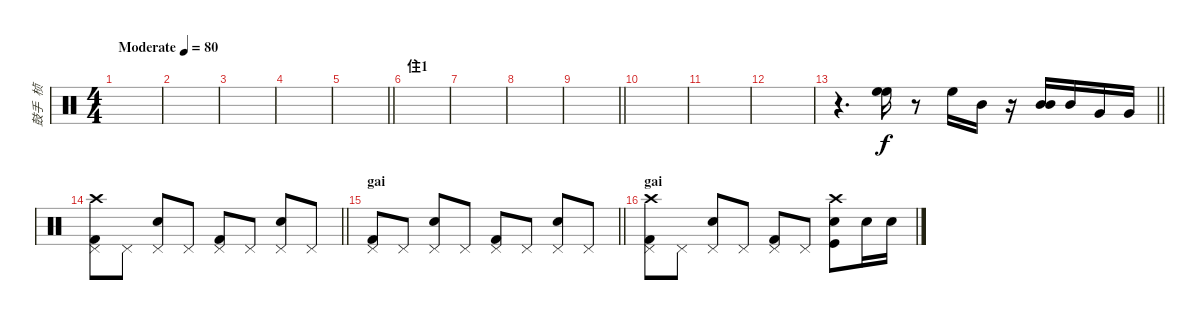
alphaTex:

\track ("鼓手  桢" "鼓手  桢") {instrument percussion}
\staff {score}
\articulation defaults
\ts (4 4)
\tempo (80 "Moderate")
\clef neutral
\ks c
|
|
|
|
\barLineRight lightlight
|
\section ("" "住1")
|
|
|
\barLineRight lightlight
|
|
|
|
\barLineRight lightlight
r.4{d} ("High Floor Tom (hit)" "High Floor Tom (hit)").16 r.8 "High Floor Tom (hit)".16 "Mid Tom (hit)".16 r.16 ("Mid Tom (hit)" "Mid Tom (hit)").16 "Mid Tom (hit)".16 "Very Low Tom (hit)".16 "Very Low Tom (hit)".16 |
\barLineRight lightlight
("Pedal Hi-Hat (hit)" "Kick (hit) 2" "Crash high (hit)").8{dy f} "Pedal Hi-Hat (hit)".8 ("Pedal Hi-Hat (hit)" "Snare (hit) 2").8 "Pedal Hi-Hat (hit)".8 ("Pedal Hi-Hat (hit)" "Kick (hit) 2").8 "Pedal Hi-Hat (hit)".8 ("Pedal Hi-Hat (hit)" "Snare (hit) 2").8 "Pedal Hi-Hat (hit)".8 |
\section ("" "gai ")
\barLineRight lightlight
("Pedal Hi-Hat (hit)" "Kick (hit) 2").8 "Pedal Hi-Hat (hit)".8 ("Pedal Hi-Hat (hit)" "Snare (hit) 2").8 "Pedal Hi-Hat (hit)".8 ("Pedal Hi-Hat (hit)" "Kick (hit) 2").8 "Pedal Hi-Hat (hit)".8 ("Pedal Hi-Hat (hit)" "Snare (hit) 2").8 "Pedal Hi-Hat (hit)".8 |
\section ("" "gai")
("Pedal Hi-Hat (hit)" "Kick (hit) 2" "Crash high (hit)").8 "Pedal Hi-Hat (hit)".8 ("Pedal Hi-Hat (hit)" "Snare (hit) 2").8 "Pedal Hi-Hat (hit)".8 ("Pedal Hi-Hat (hit)" "Kick (hit) 2").8 "Pedal Hi-Hat (hit)".8 ("Crash high (hit)" "Snare (hit) 2" "Kick (hit)").8 "Snare (hit) 2".16 "Snare (hit) 2".16
